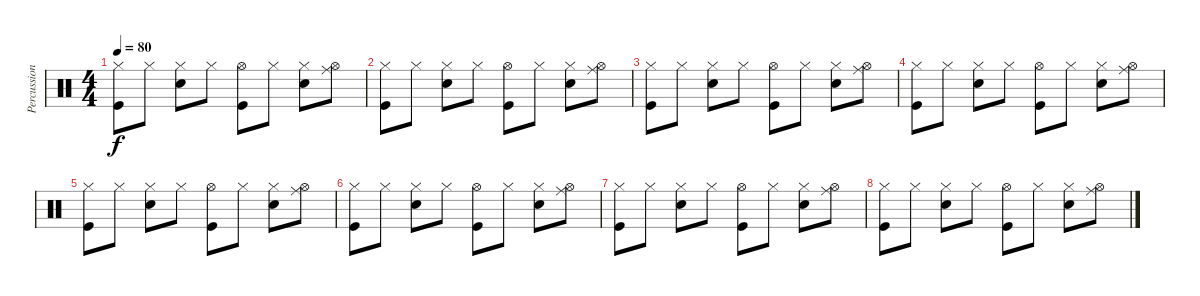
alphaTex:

\track ("Percussion" "Percussion") {instrument percussion}
\staff {score}
\articulation defaults
\ts (4 4)
\tempo 80
\clef neutral
\ks c
("Hi-Hat (closed)" "Kick (hit)").8{dy f} "Hi-Hat (closed)".8 ("Hi-Hat (closed)" "Snare (hit) 2").8 "Hi-Hat (closed)".8 ("Hi-Hat (open)" "Kick (hit)").8 "Hi-Hat (closed)".8 ("Hi-Hat (closed)" "Snare (hit) 2").8 ("Hi-Hat (open)" "Ride (middle)").8 |
("Hi-Hat (closed)" "Kick (hit)").8 "Hi-Hat (closed)".8 ("Hi-Hat (closed)" "Snare (hit) 2").8 "Hi-Hat (closed)".8 ("Hi-Hat (open)" "Kick (hit)").8 "Hi-Hat (closed)".8 ("Hi-Hat (closed)" "Snare (hit) 2").8 ("Hi-Hat (open)" "Ride (middle)").8 |
("Hi-Hat (closed)" "Kick (hit)").8 "Hi-Hat (closed)".8 ("Hi-Hat (closed)" "Snare (hit) 2").8 "Hi-Hat (closed)".8 ("Hi-Hat (open)" "Kick (hit)").8 "Hi-Hat (closed)".8 ("Hi-Hat (closed)" "Snare (hit) 2").8 ("Hi-Hat (open)" "Ride (middle)").8 |
("Hi-Hat (closed)" "Kick (hit)").8 "Hi-Hat (closed)".8 ("Hi-Hat (closed)" "Snare (hit) 2").8 "Hi-Hat (closed)".8 ("Hi-Hat (open)" "Kick (hit)").8 "Hi-Hat (closed)".8 ("Hi-Hat (closed)" "Snare (hit) 2").8 ("Hi-Hat (open)" "Ride (middle)").8 |
("Hi-Hat (closed)" "Kick (hit)").8 "Hi-Hat (closed)".8 ("Hi-Hat (closed)" "Snare (hit) 2").8 "Hi-Hat (closed)".8 ("Hi-Hat (open)" "Kick (hit)").8 "Hi-Hat (closed)".8 ("Hi-Hat (closed)" "Snare (hit) 2").8 ("Hi-Hat (open)" "Ride (middle)").8 |
("Hi-Hat (closed)" "Kick (hit)").8 "Hi-Hat (closed)".8 ("Hi-Hat (closed)" "Snare (hit) 2").8 "Hi-Hat (closed)".8 ("Hi-Hat (open)" "Kick (hit)").8 "Hi-Hat (closed)".8 ("Hi-Hat (closed)" "Snare (hit) 2").8 ("Hi-Hat (open)" "Ride (middle)").8 |
("Hi-Hat (closed)" "Kick (hit)").8 "Hi-Hat (closed)".8 ("Hi-Hat (closed)" "Snare (hit) 2").8 "Hi-Hat (closed)".8 ("Hi-Hat (open)" "Kick (hit)").8 "Hi-Hat (closed)".8 ("Hi-Hat (closed)" "Snare (hit) 2").8 ("Hi-Hat (open)" "Ride (middle)").8 |
("Hi-Hat (closed)" "Kick (hit)").8 "Hi-Hat (closed)".8 ("Hi-Hat (closed)" "Snare (hit) 2").8 "Hi-Hat (closed)".8 ("Hi-Hat (open)" "Kick (hit)").8 "Hi-Hat (closed)".8 ("Hi-Hat (closed)" "Snare (hit) 2").8 ("Hi-Hat (open)" "Ride (middle)").8
